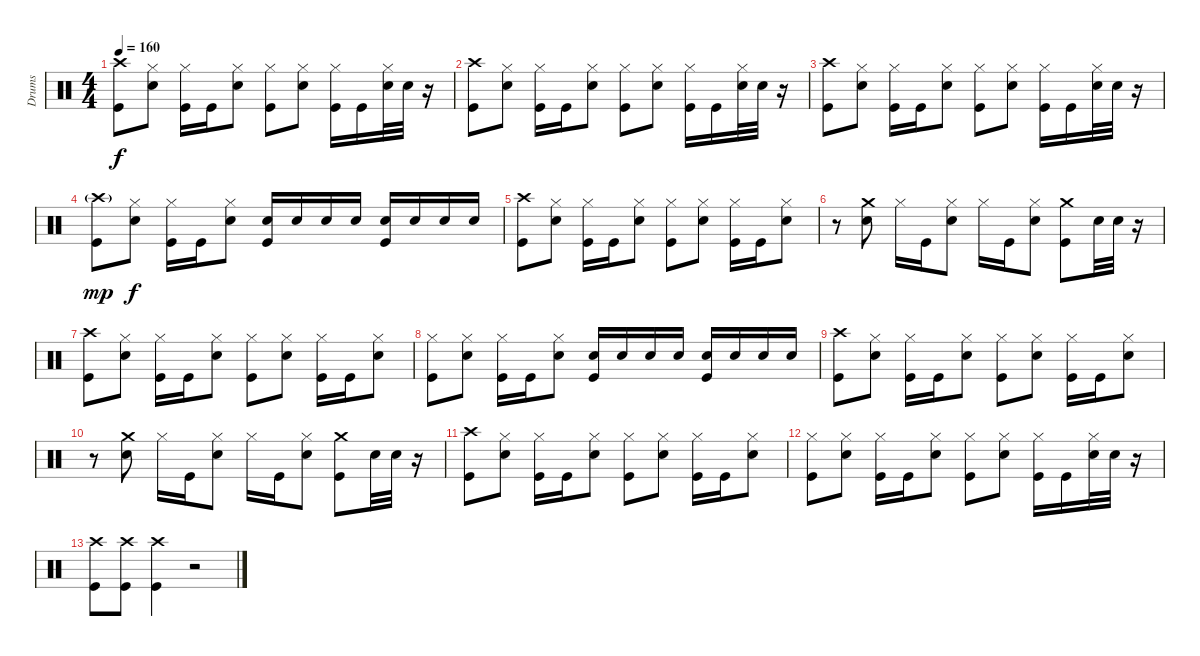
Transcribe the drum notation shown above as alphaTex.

\track ("Drums" "Drums") {instrument percussion}
\staff {score}
\articulation defaults
\ts (4 4)
\tempo 160
\clef neutral
\ks c
("Crash high (hit)" "Kick (hit)").8{dy f} ("Hi-Hat (closed)" "Electric Snare (hit)").8 ("Hi-Hat (closed)" "Kick (hit)").16 "Kick (hit)".16 ("Hi-Hat (closed)" "Electric Snare (hit)").8 ("Hi-Hat (closed)" "Kick (hit)").8 ("Hi-Hat (closed)" "Electric Snare (hit)").8 ("Hi-Hat (closed)" "Kick (hit)").16 "Kick (hit)".16 ("Hi-Hat (closed)" "Electric Snare (hit)").32 "Electric Snare (hit)".32 r.16 |
("Crash high (hit)" "Kick (hit)").8 ("Hi-Hat (closed)" "Electric Snare (hit)").8 ("Hi-Hat (closed)" "Kick (hit)").16 "Kick (hit)".16 ("Hi-Hat (closed)" "Electric Snare (hit)").8 ("Hi-Hat (closed)" "Kick (hit)").8 ("Hi-Hat (closed)" "Electric Snare (hit)").8 ("Hi-Hat (closed)" "Kick (hit)").16 "Kick (hit)".16 ("Hi-Hat (closed)" "Electric Snare (hit)").32 "Electric Snare (hit)".32 r.16 |
("Crash high (hit)" "Kick (hit)").8 ("Hi-Hat (closed)" "Electric Snare (hit)").8 ("Hi-Hat (closed)" "Kick (hit)").16 "Kick (hit)".16 ("Hi-Hat (closed)" "Electric Snare (hit)").8 ("Hi-Hat (closed)" "Kick (hit)").8 ("Hi-Hat (closed)" "Electric Snare (hit)").8 ("Hi-Hat (closed)" "Kick (hit)").16 "Kick (hit)".16 ("Hi-Hat (closed)" "Electric Snare (hit)").32 "Electric Snare (hit)".32 r.16 |
("Crash high (hit)"{g} "Kick (hit)").8{dy mp} ("Hi-Hat (closed)" "Electric Snare (hit)").8{dy f} ("Hi-Hat (closed)" "Kick (hit)").16 "Kick (hit)".16 ("Hi-Hat (closed)" "Electric Snare (hit)").8 ("Electric Snare (hit)" "Kick (hit)").16 "Electric Snare (hit)".16 "Electric Snare (hit)".16 "Electric Snare (hit)".16 ("Electric Snare (hit)" "Kick (hit)").16 "Electric Snare (hit)".16 "Electric Snare (hit)".16 "Electric Snare (hit)".16 |
("Crash high (hit)" "Kick (hit)").8 ("Hi-Hat (closed)" "Electric Snare (hit)").8 ("Hi-Hat (closed)" "Kick (hit)").16 "Kick (hit)".16 ("Hi-Hat (closed)" "Electric Snare (hit)").8 ("Hi-Hat (closed)" "Kick (hit)").8 ("Hi-Hat (closed)" "Electric Snare (hit)").8 ("Hi-Hat (closed)" "Kick (hit)").16 "Kick (hit)".16 ("Hi-Hat (closed)" "Electric Snare (hit)").8 |
r.8 ("Crash medium (hit)" "Electric Snare (hit)").8 "Hi-Hat (closed)".16 "Kick (hit)".16 ("Hi-Hat (closed)" "Electric Snare (hit)").8 "Hi-Hat (closed)".16 "Kick (hit)".16 ("Hi-Hat (closed)" "Electric Snare (hit)").8 ("Crash medium (hit)" "Kick (hit)").8 "Electric Snare (hit)".32 "Electric Snare (hit)".32 r.16 |
("Crash high (hit)" "Kick (hit)").8 ("Hi-Hat (closed)" "Electric Snare (hit)").8 ("Hi-Hat (closed)" "Kick (hit)").16 "Kick (hit)".16 ("Hi-Hat (closed)" "Electric Snare (hit)").8 ("Hi-Hat (closed)" "Kick (hit)").8 ("Hi-Hat (closed)" "Electric Snare (hit)").8 ("Hi-Hat (closed)" "Kick (hit)").16 "Kick (hit)".16 ("Hi-Hat (closed)" "Electric Snare (hit)").8 |
("Hi-Hat (closed)" "Kick (hit)").8 ("Hi-Hat (closed)" "Electric Snare (hit)").8 ("Hi-Hat (closed)" "Kick (hit)").16 "Kick (hit)".16 ("Hi-Hat (closed)" "Electric Snare (hit)").8 ("Electric Snare (hit)" "Kick (hit)").16 "Electric Snare (hit)".16 "Electric Snare (hit)".16 "Electric Snare (hit)".16 ("Electric Snare (hit)" "Kick (hit)").16 "Electric Snare (hit)".16 "Electric Snare (hit)".16 "Electric Snare (hit)".16 |
("Crash high (hit)" "Kick (hit)").8 ("Hi-Hat (closed)" "Electric Snare (hit)").8 ("Hi-Hat (closed)" "Kick (hit)").16 "Kick (hit)".16 ("Hi-Hat (closed)" "Electric Snare (hit)").8 ("Hi-Hat (closed)" "Kick (hit)").8 ("Hi-Hat (closed)" "Electric Snare (hit)").8 ("Hi-Hat (closed)" "Kick (hit)").16 "Kick (hit)".16 ("Hi-Hat (closed)" "Electric Snare (hit)").8 |
r.8 ("Crash medium (hit)" "Electric Snare (hit)").8 "Hi-Hat (closed)".16 "Kick (hit)".16 ("Hi-Hat (closed)" "Electric Snare (hit)").8 "Hi-Hat (closed)".16 "Kick (hit)".16 ("Hi-Hat (closed)" "Electric Snare (hit)").8 ("Crash medium (hit)" "Kick (hit)").8 "Electric Snare (hit)".32 "Electric Snare (hit)".32 r.16 |
("Crash high (hit)" "Kick (hit)").8 ("Hi-Hat (closed)" "Electric Snare (hit)").8 ("Hi-Hat (closed)" "Kick (hit)").16 "Kick (hit)".16 ("Hi-Hat (closed)" "Electric Snare (hit)").8 ("Hi-Hat (closed)" "Kick (hit)").8 ("Hi-Hat (closed)" "Electric Snare (hit)").8 ("Hi-Hat (closed)" "Kick (hit)").16 "Kick (hit)".16 ("Hi-Hat (closed)" "Electric Snare (hit)").8 |
("Hi-Hat (closed)" "Kick (hit)").8 ("Hi-Hat (closed)" "Electric Snare (hit)").8 ("Hi-Hat (closed)" "Kick (hit)").16 "Kick (hit)".16 ("Hi-Hat (closed)" "Electric Snare (hit)").8 ("Hi-Hat (closed)" "Kick (hit)").8 ("Hi-Hat (closed)" "Electric Snare (hit)").8 ("Hi-Hat (closed)" "Kick (hit)").16 "Kick (hit)".16 ("Hi-Hat (closed)" "Electric Snare (hit)").32 "Electric Snare (hit)".32 r.16 |
("Crash high (hit)" "Kick (hit)").8 ("Crash high (hit)" "Kick (hit)").8 ("Crash high (hit)" "Kick (hit)").4 r.2
